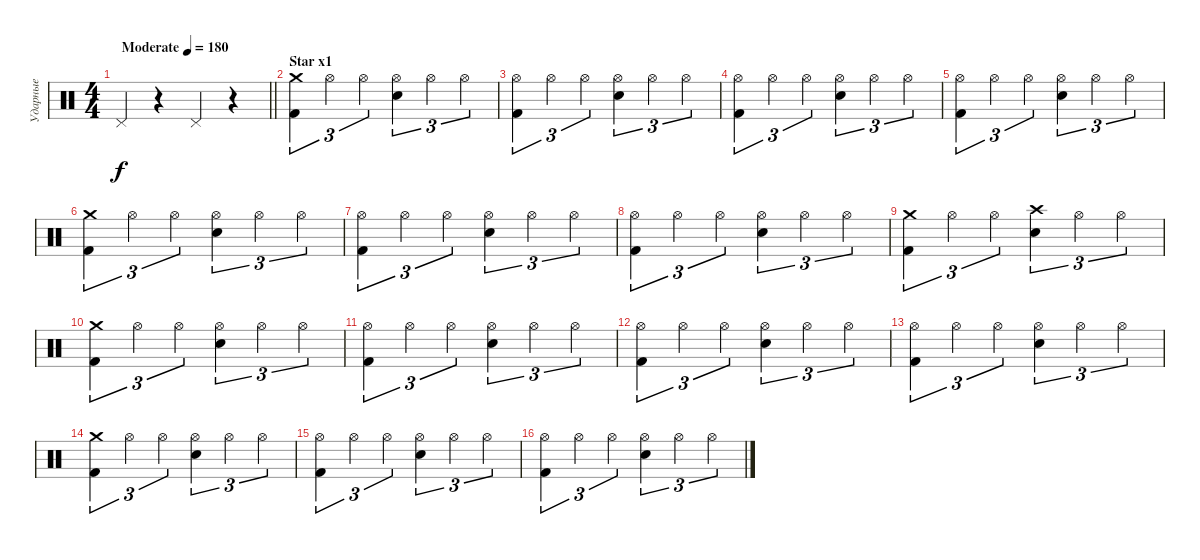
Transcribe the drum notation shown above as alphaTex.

\track ("Ударные" "Ударные") {instrument percussion}
\staff {score}
\articulation defaults
\ts (4 4)
\tempo (180 "Moderate")
\clef neutral
\barLineRight lightlight
\ks c "Pedal Hi-Hat (hit)".4{dy f}
r.4 "Pedal Hi-Hat (hit)".4 r.4 |
\section ("" "Star x1")
("Crash medium (hit)" "Kick (hit) 2").4{tu (3 2)} "Hi-Hat (open)".4{tu (3 2)} "Hi-Hat (open)".4{tu (3 2)} ("Hi-Hat (open)" "Electric Snare (hit)").4{tu (3 2)} "Hi-Hat (open)".4{tu (3 2)} "Hi-Hat (open)".4{tu (3 2)} |
("Hi-Hat (open)" "Kick (hit) 2").4{tu (3 2)} "Hi-Hat (open)".4{tu (3 2)} "Hi-Hat (open)".4{tu (3 2)} ("Hi-Hat (open)" "Electric Snare (hit)").4{tu (3 2)} "Hi-Hat (open)".4{tu (3 2)} "Hi-Hat (open)".4{tu (3 2)} |
("Hi-Hat (open)" "Kick (hit) 2").4{tu (3 2)} "Hi-Hat (open)".4{tu (3 2)} "Hi-Hat (open)".4{tu (3 2)} ("Hi-Hat (open)" "Electric Snare (hit)").4{tu (3 2)} "Hi-Hat (open)".4{tu (3 2)} "Hi-Hat (open)".4{tu (3 2)} |
("Hi-Hat (open)" "Kick (hit) 2").4{tu (3 2)} "Hi-Hat (open)".4{tu (3 2)} "Hi-Hat (open)".4{tu (3 2)} ("Electric Snare (hit)" "Hi-Hat (open)").4{tu (3 2)} "Hi-Hat (open)".4{tu (3 2)} "Hi-Hat (open)".4{tu (3 2)} |
("Crash medium (hit)" "Kick (hit) 2").4{tu (3 2)} "Hi-Hat (open)".4{tu (3 2)} "Hi-Hat (open)".4{tu (3 2)} ("Hi-Hat (open)" "Electric Snare (hit)").4{tu (3 2)} "Hi-Hat (open)".4{tu (3 2)} "Hi-Hat (open)".4{tu (3 2)} |
("Hi-Hat (open)" "Kick (hit) 2").4{tu (3 2)} "Hi-Hat (open)".4{tu (3 2)} "Hi-Hat (open)".4{tu (3 2)} ("Hi-Hat (open)" "Electric Snare (hit)").4{tu (3 2)} "Hi-Hat (open)".4{tu (3 2)} "Hi-Hat (open)".4{tu (3 2)} |
("Hi-Hat (open)" "Kick (hit) 2").4{tu (3 2)} "Hi-Hat (open)".4{tu (3 2)} "Hi-Hat (open)".4{tu (3 2)} ("Hi-Hat (open)" "Electric Snare (hit)").4{tu (3 2)} "Hi-Hat (open)".4{tu (3 2)} "Hi-Hat (open)".4{tu (3 2)} |
("Crash medium (hit)" "Kick (hit) 2").4{tu (3 2)} "Hi-Hat (open)".4{tu (3 2)} "Hi-Hat (open)".4{tu (3 2)} ("Crash high (hit)" "Electric Snare (hit)").4{tu (3 2)} "Hi-Hat (open)".4{tu (3 2)} "Hi-Hat (open)".4{tu (3 2)} |
("Crash medium (hit)" "Kick (hit) 2").4{tu (3 2)} "Hi-Hat (open)".4{tu (3 2)} "Hi-Hat (open)".4{tu (3 2)} ("Hi-Hat (open)" "Electric Snare (hit)").4{tu (3 2)} "Hi-Hat (open)".4{tu (3 2)} "Hi-Hat (open)".4{tu (3 2)} |
("Hi-Hat (open)" "Kick (hit) 2").4{tu (3 2)} "Hi-Hat (open)".4{tu (3 2)} "Hi-Hat (open)".4{tu (3 2)} ("Hi-Hat (open)" "Electric Snare (hit)").4{tu (3 2)} "Hi-Hat (open)".4{tu (3 2)} "Hi-Hat (open)".4{tu (3 2)} |
("Hi-Hat (open)" "Kick (hit) 2").4{tu (3 2)} "Hi-Hat (open)".4{tu (3 2)} "Hi-Hat (open)".4{tu (3 2)} ("Hi-Hat (open)" "Electric Snare (hit)").4{tu (3 2)} "Hi-Hat (open)".4{tu (3 2)} "Hi-Hat (open)".4{tu (3 2)} |
("Hi-Hat (open)" "Kick (hit) 2").4{tu (3 2)} "Hi-Hat (open)".4{tu (3 2)} "Hi-Hat (open)".4{tu (3 2)} ("Hi-Hat (open)" "Electric Snare (hit)").4{tu (3 2)} "Hi-Hat (open)".4{tu (3 2)} "Hi-Hat (open)".4{tu (3 2)} |
("Crash medium (hit)" "Kick (hit) 2").4{tu (3 2)} "Hi-Hat (open)".4{tu (3 2)} "Hi-Hat (open)".4{tu (3 2)} ("Hi-Hat (open)" "Electric Snare (hit)").4{tu (3 2)} "Hi-Hat (open)".4{tu (3 2)} "Hi-Hat (open)".4{tu (3 2)} |
("Hi-Hat (open)" "Kick (hit) 2").4{tu (3 2)} "Hi-Hat (open)".4{tu (3 2)} "Hi-Hat (open)".4{tu (3 2)} ("Hi-Hat (open)" "Electric Snare (hit)").4{tu (3 2)} "Hi-Hat (open)".4{tu (3 2)} "Hi-Hat (open)".4{tu (3 2)} |
("Hi-Hat (open)" "Kick (hit) 2").4{tu (3 2)} "Hi-Hat (open)".4{tu (3 2)} "Hi-Hat (open)".4{tu (3 2)} ("Hi-Hat (open)" "Electric Snare (hit)").4{tu (3 2)} "Hi-Hat (open)".4{tu (3 2)} "Hi-Hat (open)".4{tu (3 2)}
